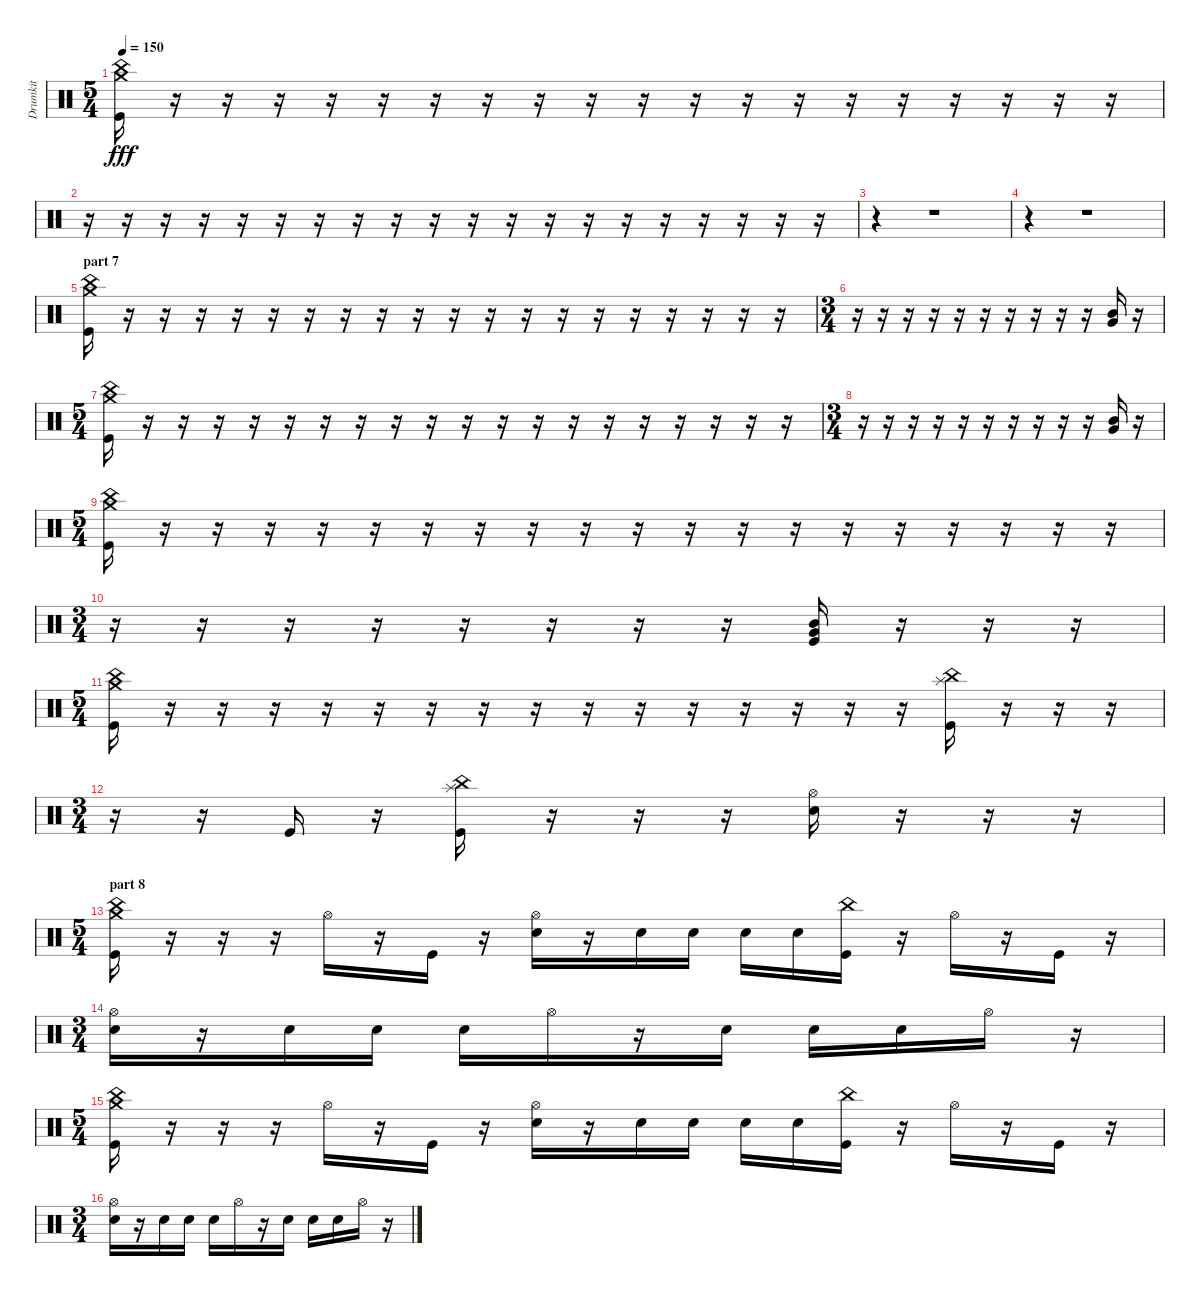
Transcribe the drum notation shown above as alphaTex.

\track ("Drumkit" "Drumkit") {instrument percussion}
\staff {score}
\articulation defaults
\ts (5 4)
\tempo 150
\clef neutral
\ks c
("Kick (hit)" "Crash medium (hit)" "China (hit)").16{dy fff} r.16 r.16 r.16 r.16 r.16 r.16 r.16 r.16 r.16 r.16 r.16 r.16 r.16 r.16 r.16 r.16 r.16 r.16 r.16 |
r.16 r.16 r.16 r.16 r.16 r.16 r.16 r.16 r.16 r.16 r.16 r.16 r.16 r.16 r.16 r.16 r.16 r.16 r.16 r.16 |
r.4 r.1 |
r.4 r.1 |
\section ("" "part 7")
("Kick (hit)" "Crash medium (hit)" "China (hit)").16 r.16 r.16 r.16 r.16 r.16 r.16 r.16 r.16 r.16 r.16 r.16 r.16 r.16 r.16 r.16 r.16 r.16 r.16 r.16 |
\ts (3 4)
r.16 r.16 r.16 r.16 r.16 r.16 r.16 r.16 r.16 r.16 ("Very Low Tom (hit)" "Mid Tom (hit)").16 r.16 |
\ts (5 4)
("Kick (hit)" "Crash medium (hit)" "China (hit)").16 r.16 r.16 r.16 r.16 r.16 r.16 r.16 r.16 r.16 r.16 r.16 r.16 r.16 r.16 r.16 r.16 r.16 r.16 r.16 |
\ts (3 4)
r.16 r.16 r.16 r.16 r.16 r.16 r.16 r.16 r.16 r.16 ("Very Low Tom (hit)" "Mid Tom (hit)").16 r.16 |
\ts (5 4)
("Kick (hit)" "Crash medium (hit)" "China (hit)").16 r.16 r.16 r.16 r.16 r.16 r.16 r.16 r.16 r.16 r.16 r.16 r.16 r.16 r.16 r.16 r.16 r.16 r.16 r.16 |
\ts (3 4)
r.16 r.16 r.16 r.16 r.16 r.16 r.16 r.16 ("Kick (hit)" "Very Low Tom (hit)" "Mid Tom (hit)").16 r.16 r.16 r.16 |
\ts (5 4)
("Kick (hit)" "Crash medium (hit)" "China (hit)").16 r.16 r.16 r.16 r.16 r.16 r.16 r.16 r.16 r.16 r.16 r.16 r.16 r.16 r.16 r.16 ("Kick (hit)" "Splash (hit)" "China (hit)").16 r.16 r.16 r.16 |
\ts (3 4)
r.16 r.16 "Kick (hit)".16 r.16 ("Kick (hit)" "Splash (hit)" "China (hit)").16 r.16 r.16 r.16 ("Snare (hit) 2" "Hi-Hat (open)").16 r.16 r.16 r.16 |
\ts (5 4)
\section ("" "part 8")
("Kick (hit)" "Crash medium (hit)" "China (hit)").16 r.16 r.16 r.16 "Hi-Hat (open)".16 r.16 "Kick (hit)".16 r.16 ("Hi-Hat (open)" "Snare (hit) 2").16 r.16 "Snare (hit) 2".16 "Snare (hit) 2".16 "Snare (hit) 2".16 "Snare (hit) 2".16 ("Kick (hit)" "China (hit)").16 r.16 "Hi-Hat (open)".16 r.16 "Kick (hit)".16 r.16 |
\ts (3 4)
("Hi-Hat (open)" "Snare (hit) 2").16 r.16 "Snare (hit) 2".16 "Snare (hit) 2".16 "Snare (hit) 2".16 "Hi-Hat (open)".16 r.16 "Snare (hit) 2".16 "Snare (hit) 2".16 "Snare (hit) 2".16 "Hi-Hat (open)".16 r.16 |
\ts (5 4)
("Kick (hit)" "Crash medium (hit)" "China (hit)").16 r.16 r.16 r.16 "Hi-Hat (open)".16 r.16 "Kick (hit)".16 r.16 ("Hi-Hat (open)" "Snare (hit) 2").16 r.16 "Snare (hit) 2".16 "Snare (hit) 2".16 "Snare (hit) 2".16 "Snare (hit) 2".16 ("Kick (hit)" "China (hit)").16 r.16 "Hi-Hat (open)".16 r.16 "Kick (hit)".16 r.16 |
\ts (3 4)
("Hi-Hat (open)" "Snare (hit) 2").16 r.16 "Snare (hit) 2".16 "Snare (hit) 2".16 "Snare (hit) 2".16 "Hi-Hat (open)".16 r.16 "Snare (hit) 2".16 "Snare (hit) 2".16 "Snare (hit) 2".16 "Hi-Hat (open)".16 r.16
